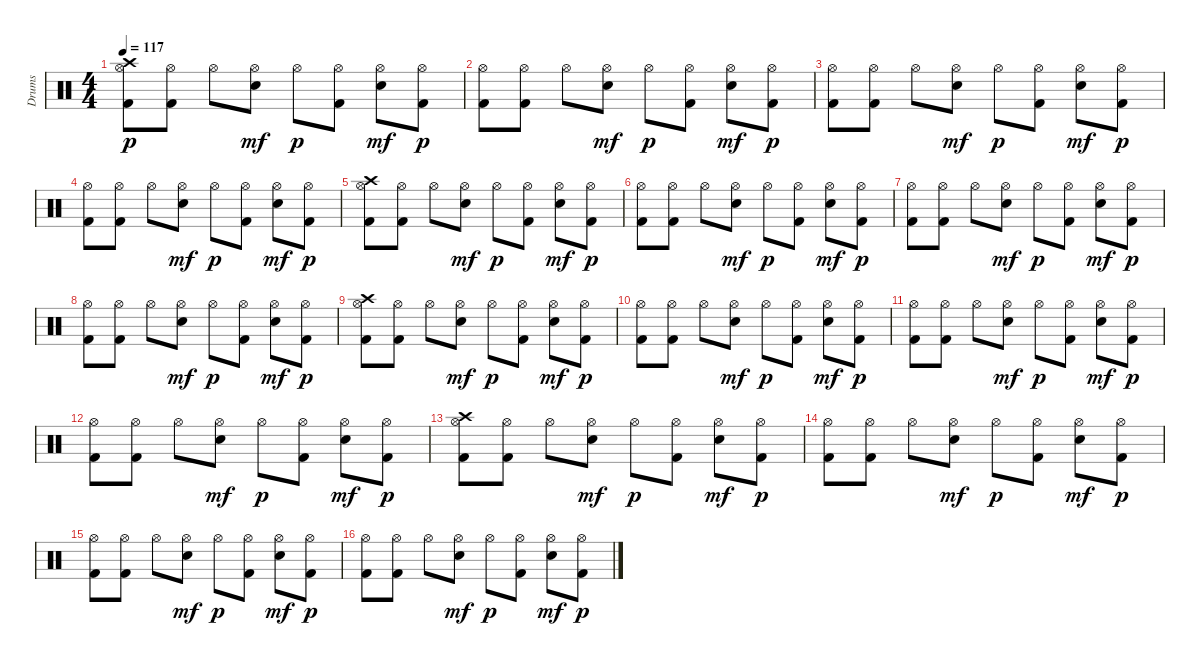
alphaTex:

\track ("Drums" "Drums") {instrument percussion}
\staff {score}
\articulation defaults
\ts (4 4)
\tempo 117
\clef neutral
\ks c
("Crash high (hit)" "Hi-Hat (open)" "Kick (hit) 2").8{dy p} ("Hi-Hat (open)" "Kick (hit) 2").8 "Hi-Hat (open)".8 ("Hi-Hat (open)" "Snare (hit) 2").8{dy mf} "Hi-Hat (open)".8{dy p} ("Hi-Hat (open)" "Kick (hit) 2").8 ("Hi-Hat (open)" "Snare (hit) 2").8{dy mf} ("Hi-Hat (open)" "Kick (hit) 2").8{dy p} |
("Hi-Hat (open)" "Kick (hit) 2").8 ("Hi-Hat (open)" "Kick (hit) 2").8 "Hi-Hat (open)".8 ("Hi-Hat (open)" "Snare (hit) 2").8{dy mf} "Hi-Hat (open)".8{dy p} ("Hi-Hat (open)" "Kick (hit) 2").8 ("Hi-Hat (open)" "Snare (hit) 2").8{dy mf} ("Hi-Hat (open)" "Kick (hit) 2").8{dy p} |
("Hi-Hat (open)" "Kick (hit) 2").8 ("Hi-Hat (open)" "Kick (hit) 2").8 "Hi-Hat (open)".8 ("Hi-Hat (open)" "Snare (hit) 2").8{dy mf} "Hi-Hat (open)".8{dy p} ("Hi-Hat (open)" "Kick (hit) 2").8 ("Hi-Hat (open)" "Snare (hit) 2").8{dy mf} ("Hi-Hat (open)" "Kick (hit) 2").8{dy p} |
("Hi-Hat (open)" "Kick (hit) 2").8 ("Hi-Hat (open)" "Kick (hit) 2").8 "Hi-Hat (open)".8 ("Hi-Hat (open)" "Snare (hit) 2").8{dy mf} "Hi-Hat (open)".8{dy p} ("Hi-Hat (open)" "Kick (hit) 2").8 ("Hi-Hat (open)" "Snare (hit) 2").8{dy mf} ("Hi-Hat (open)" "Kick (hit) 2").8{dy p} |
("Crash high (hit)" "Hi-Hat (open)" "Kick (hit) 2").8 ("Hi-Hat (open)" "Kick (hit) 2").8 "Hi-Hat (open)".8 ("Hi-Hat (open)" "Snare (hit) 2").8{dy mf} "Hi-Hat (open)".8{dy p} ("Hi-Hat (open)" "Kick (hit) 2").8 ("Hi-Hat (open)" "Snare (hit) 2").8{dy mf} ("Hi-Hat (open)" "Kick (hit) 2").8{dy p} |
("Hi-Hat (open)" "Kick (hit) 2").8 ("Hi-Hat (open)" "Kick (hit) 2").8 "Hi-Hat (open)".8 ("Hi-Hat (open)" "Snare (hit) 2").8{dy mf} "Hi-Hat (open)".8{dy p} ("Hi-Hat (open)" "Kick (hit) 2").8 ("Hi-Hat (open)" "Snare (hit) 2").8{dy mf} ("Hi-Hat (open)" "Kick (hit) 2").8{dy p} |
("Hi-Hat (open)" "Kick (hit) 2").8 ("Hi-Hat (open)" "Kick (hit) 2").8 "Hi-Hat (open)".8 ("Hi-Hat (open)" "Snare (hit) 2").8{dy mf} "Hi-Hat (open)".8{dy p} ("Hi-Hat (open)" "Kick (hit) 2").8 ("Hi-Hat (open)" "Snare (hit) 2").8{dy mf} ("Hi-Hat (open)" "Kick (hit) 2").8{dy p} |
("Hi-Hat (open)" "Kick (hit) 2").8 ("Hi-Hat (open)" "Kick (hit) 2").8 "Hi-Hat (open)".8 ("Hi-Hat (open)" "Snare (hit) 2").8{dy mf} "Hi-Hat (open)".8{dy p} ("Hi-Hat (open)" "Kick (hit) 2").8 ("Hi-Hat (open)" "Snare (hit) 2").8{dy mf} ("Hi-Hat (open)" "Kick (hit) 2").8{dy p} |
("Crash high (hit)" "Hi-Hat (open)" "Kick (hit) 2").8 ("Hi-Hat (open)" "Kick (hit) 2").8 "Hi-Hat (open)".8 ("Hi-Hat (open)" "Snare (hit) 2").8{dy mf} "Hi-Hat (open)".8{dy p} ("Hi-Hat (open)" "Kick (hit) 2").8 ("Hi-Hat (open)" "Snare (hit) 2").8{dy mf} ("Hi-Hat (open)" "Kick (hit) 2").8{dy p} |
("Hi-Hat (open)" "Kick (hit) 2").8 ("Hi-Hat (open)" "Kick (hit) 2").8 "Hi-Hat (open)".8 ("Hi-Hat (open)" "Snare (hit) 2").8{dy mf} "Hi-Hat (open)".8{dy p} ("Hi-Hat (open)" "Kick (hit) 2").8 ("Hi-Hat (open)" "Snare (hit) 2").8{dy mf} ("Hi-Hat (open)" "Kick (hit) 2").8{dy p} |
("Hi-Hat (open)" "Kick (hit) 2").8 ("Hi-Hat (open)" "Kick (hit) 2").8 "Hi-Hat (open)".8 ("Hi-Hat (open)" "Snare (hit) 2").8{dy mf} "Hi-Hat (open)".8{dy p} ("Hi-Hat (open)" "Kick (hit) 2").8 ("Hi-Hat (open)" "Snare (hit) 2").8{dy mf} ("Hi-Hat (open)" "Kick (hit) 2").8{dy p} |
("Hi-Hat (open)" "Kick (hit) 2").8 ("Hi-Hat (open)" "Kick (hit) 2").8 "Hi-Hat (open)".8 ("Hi-Hat (open)" "Snare (hit) 2").8{dy mf} "Hi-Hat (open)".8{dy p} ("Hi-Hat (open)" "Kick (hit) 2").8 ("Hi-Hat (open)" "Snare (hit) 2").8{dy mf} ("Hi-Hat (open)" "Kick (hit) 2").8{dy p} |
("Crash high (hit)" "Hi-Hat (open)" "Kick (hit) 2").8 ("Hi-Hat (open)" "Kick (hit) 2").8 "Hi-Hat (open)".8 ("Hi-Hat (open)" "Snare (hit) 2").8{dy mf} "Hi-Hat (open)".8{dy p} ("Hi-Hat (open)" "Kick (hit) 2").8 ("Hi-Hat (open)" "Snare (hit) 2").8{dy mf} ("Hi-Hat (open)" "Kick (hit) 2").8{dy p} |
("Hi-Hat (open)" "Kick (hit) 2").8 ("Hi-Hat (open)" "Kick (hit) 2").8 "Hi-Hat (open)".8 ("Hi-Hat (open)" "Snare (hit) 2").8{dy mf} "Hi-Hat (open)".8{dy p} ("Hi-Hat (open)" "Kick (hit) 2").8 ("Hi-Hat (open)" "Snare (hit) 2").8{dy mf} ("Hi-Hat (open)" "Kick (hit) 2").8{dy p} |
("Hi-Hat (open)" "Kick (hit) 2").8 ("Hi-Hat (open)" "Kick (hit) 2").8 "Hi-Hat (open)".8 ("Hi-Hat (open)" "Snare (hit) 2").8{dy mf} "Hi-Hat (open)".8{dy p} ("Hi-Hat (open)" "Kick (hit) 2").8 ("Hi-Hat (open)" "Snare (hit) 2").8{dy mf} ("Hi-Hat (open)" "Kick (hit) 2").8{dy p} |
("Hi-Hat (open)" "Kick (hit) 2").8 ("Hi-Hat (open)" "Kick (hit) 2").8 "Hi-Hat (open)".8 ("Hi-Hat (open)" "Snare (hit) 2").8{dy mf} "Hi-Hat (open)".8{dy p} ("Hi-Hat (open)" "Kick (hit) 2").8 ("Hi-Hat (open)" "Snare (hit) 2").8{dy mf} ("Hi-Hat (open)" "Kick (hit) 2").8{dy p}
